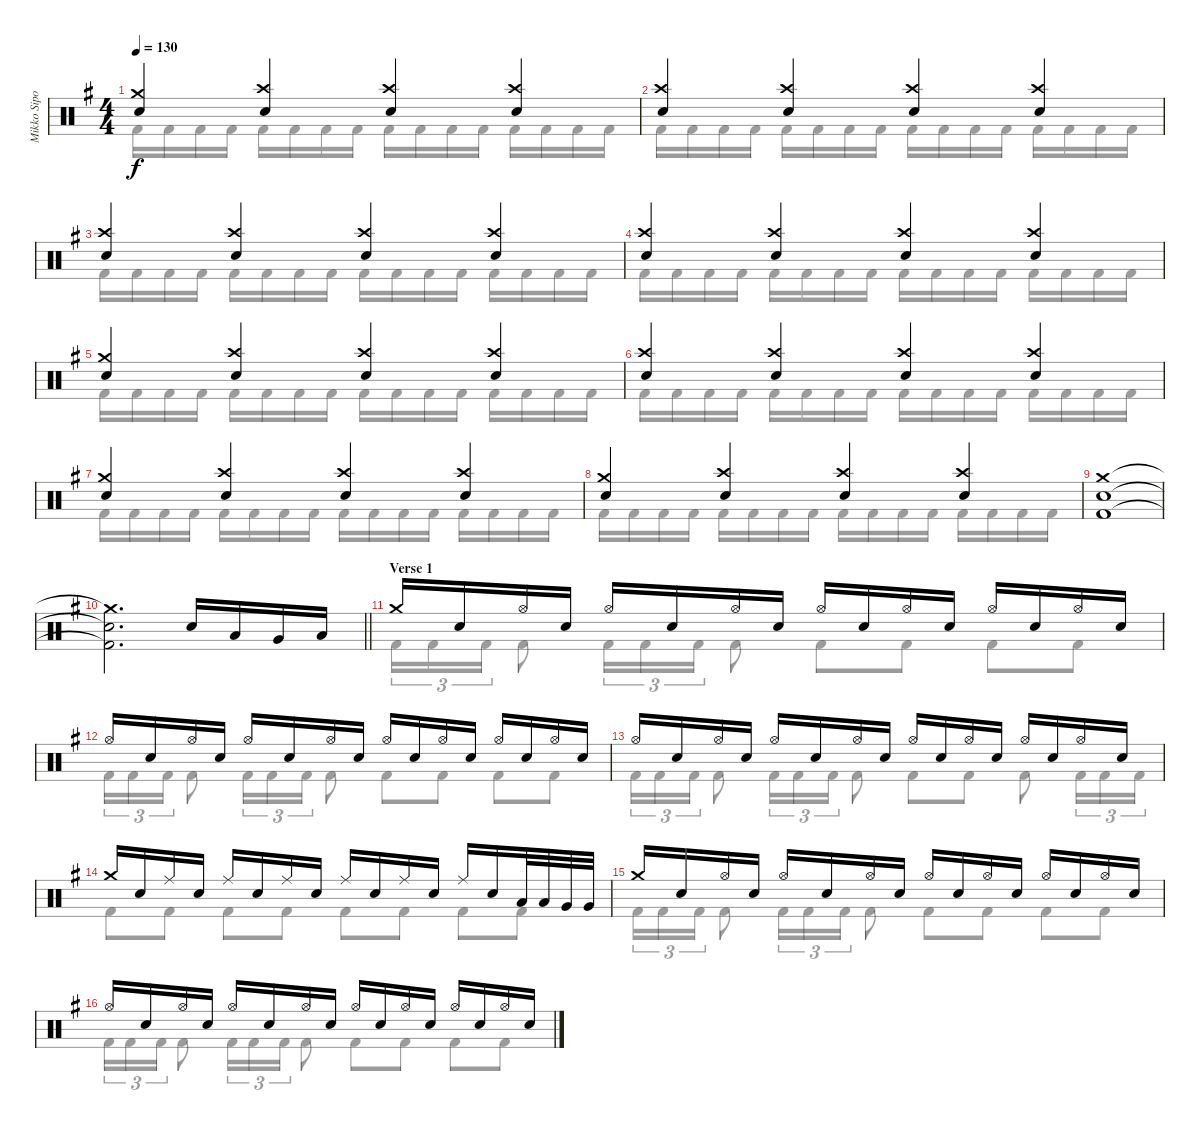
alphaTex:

\track ("Mikko Sipola (drums)" "Mikko Sipo") {instrument percussion}
\staff {score}
\articulation defaults
\voice
\ts (4 4)
\tempo 130
\clef neutral
\ks eminor
("Crash medium (hit)" "Electric Snare (hit)").4{dy f} ("Crash high (hit)" "Electric Snare (hit)").4 ("Crash high (hit)" "Electric Snare (hit)").4 ("Crash high (hit)" "Electric Snare (hit)").4 |
("Crash high (hit)" "Electric Snare (hit)").4 ("Crash high (hit)" "Electric Snare (hit)").4 ("Crash high (hit)" "Electric Snare (hit)").4 ("Crash high (hit)" "Electric Snare (hit)").4 |
("Crash high (hit)" "Electric Snare (hit)").4 ("Crash high (hit)" "Electric Snare (hit)").4 ("Crash high (hit)" "Electric Snare (hit)").4 ("Crash high (hit)" "Electric Snare (hit)").4 |
("Crash high (hit)" "Electric Snare (hit)").4 ("Crash high (hit)" "Electric Snare (hit)").4 ("Crash high (hit)" "Electric Snare (hit)").4 ("Crash high (hit)" "Electric Snare (hit)").4 |
("Crash medium (hit)" "Electric Snare (hit)").4 ("Crash high (hit)" "Electric Snare (hit)").4 ("Crash high (hit)" "Electric Snare (hit)").4 ("Crash high (hit)" "Electric Snare (hit)").4 |
("Crash high (hit)" "Electric Snare (hit)").4 ("Crash high (hit)" "Electric Snare (hit)").4 ("Crash high (hit)" "Electric Snare (hit)").4 ("Crash high (hit)" "Electric Snare (hit)").4 |
("Crash medium (hit)" "Electric Snare (hit)").4 ("Crash high (hit)" "Electric Snare (hit)").4 ("Crash high (hit)" "Electric Snare (hit)").4 ("Crash high (hit)" "Electric Snare (hit)").4 |
("Crash medium (hit)" "Electric Snare (hit)").4 ("Crash high (hit)" "Electric Snare (hit)").4 ("Crash high (hit)" "Electric Snare (hit)").4 ("Crash high (hit)" "Electric Snare (hit)").4 |
("Crash medium (hit)" "Electric Snare (hit)" "Kick (hit) 2").1 |
\barLineRight lightlight
("Crash medium (hit)"{t} "Electric Snare (hit)"{t} "Kick (hit) 2"{t}).2{d} "Electric Snare (hit)".16 "Low Tom (hit)".16 "Very Low Tom (hit)".16 "Low Floor Tom (hit)".16 |
\section ("" "Verse 1")
"Crash medium (hit)".16 "Electric Snare (hit)".16 "Hi-Hat (open)".16 "Electric Snare (hit)".16 "Hi-Hat (open)".16 "Electric Snare (hit)".16 "Hi-Hat (open)".16 "Electric Snare (hit)".16 "Hi-Hat (open)".16 "Electric Snare (hit)".16 "Hi-Hat (open)".16 "Electric Snare (hit)".16 "Hi-Hat (open)".16 "Electric Snare (hit)".16 "Hi-Hat (open)".16 "Electric Snare (hit)".16 |
"Hi-Hat (open)".16 "Electric Snare (hit)".16 "Hi-Hat (open)".16 "Electric Snare (hit)".16 "Hi-Hat (open)".16 "Electric Snare (hit)".16 "Hi-Hat (open)".16 "Electric Snare (hit)".16 "Hi-Hat (open)".16 "Electric Snare (hit)".16 "Hi-Hat (open)".16 "Electric Snare (hit)".16 "Hi-Hat (open)".16 "Electric Snare (hit)".16 "Hi-Hat (open)".16 "Electric Snare (hit)".16 |
"Hi-Hat (open)".16 "Electric Snare (hit)".16 "Hi-Hat (open)".16 "Electric Snare (hit)".16 "Hi-Hat (open)".16 "Electric Snare (hit)".16 "Hi-Hat (open)".16 "Electric Snare (hit)".16 "Hi-Hat (open)".16 "Electric Snare (hit)".16 "Hi-Hat (open)".16 "Electric Snare (hit)".16 "Hi-Hat (open)".16 "Electric Snare (hit)".16 "Hi-Hat (open)".16 "Electric Snare (hit)".16 |
"Crash medium (hit)".16 "Electric Snare (hit)".16 "Ride (middle)".16 "Electric Snare (hit)".16 "Ride (middle)".16 "Electric Snare (hit)".16 "Ride (middle)".16 "Electric Snare (hit)".16 "Ride (middle)".16 "Electric Snare (hit)".16 "Ride (middle)".16 "Electric Snare (hit)".16 "Ride (middle)".16 "Electric Snare (hit)".16 "Low Tom (hit)".32 "Low Tom (hit)".32 "Very Low Tom (hit)".32 "Very Low Tom (hit)".32 |
"Crash medium (hit)".16 "Electric Snare (hit)".16 "Hi-Hat (open)".16 "Electric Snare (hit)".16 "Hi-Hat (open)".16 "Electric Snare (hit)".16 "Hi-Hat (open)".16 "Electric Snare (hit)".16 "Hi-Hat (open)".16 "Electric Snare (hit)".16 "Hi-Hat (open)".16 "Electric Snare (hit)".16 "Hi-Hat (open)".16 "Electric Snare (hit)".16 "Hi-Hat (open)".16 "Electric Snare (hit)".16 |
"Hi-Hat (open)".16 "Electric Snare (hit)".16 "Hi-Hat (open)".16 "Electric Snare (hit)".16 "Hi-Hat (open)".16 "Electric Snare (hit)".16 "Hi-Hat (open)".16 "Electric Snare (hit)".16 "Hi-Hat (open)".16 "Electric Snare (hit)".16 "Hi-Hat (open)".16 "Electric Snare (hit)".16 "Hi-Hat (open)".16 "Electric Snare (hit)".16 "Hi-Hat (open)".16 "Electric Snare (hit)".16
\voice
\clef neutral
\ottava regular
\simile none
\ks eminor "Kick (hit) 2".16{dy f} "Kick (hit) 2".16 "Kick (hit) 2".16 "Kick (hit) 2".16 "Kick (hit) 2".16 "Kick (hit) 2".16 "Kick (hit) 2".16 "Kick (hit) 2".16 "Kick (hit) 2".16 "Kick (hit) 2".16 "Kick (hit) 2".16 "Kick (hit) 2".16 "Kick (hit) 2".16 "Kick (hit) 2".16 "Kick (hit) 2".16 "Kick (hit) 2".16
|
"Kick (hit) 2".16 "Kick (hit) 2".16 "Kick (hit) 2".16 "Kick (hit) 2".16 "Kick (hit) 2".16 "Kick (hit) 2".16 "Kick (hit) 2".16 "Kick (hit) 2".16 "Kick (hit) 2".16 "Kick (hit) 2".16 "Kick (hit) 2".16 "Kick (hit) 2".16 "Kick (hit) 2".16 "Kick (hit) 2".16 "Kick (hit) 2".16 "Kick (hit) 2".16 |
"Kick (hit) 2".16 "Kick (hit) 2".16 "Kick (hit) 2".16 "Kick (hit) 2".16 "Kick (hit) 2".16 "Kick (hit) 2".16 "Kick (hit) 2".16 "Kick (hit) 2".16 "Kick (hit) 2".16 "Kick (hit) 2".16 "Kick (hit) 2".16 "Kick (hit) 2".16 "Kick (hit) 2".16 "Kick (hit) 2".16 "Kick (hit) 2".16 "Kick (hit) 2".16 |
"Kick (hit) 2".16 "Kick (hit) 2".16 "Kick (hit) 2".16 "Kick (hit) 2".16 "Kick (hit) 2".16 "Kick (hit) 2".16 "Kick (hit) 2".16 "Kick (hit) 2".16 "Kick (hit) 2".16 "Kick (hit) 2".16 "Kick (hit) 2".16 "Kick (hit) 2".16 "Kick (hit) 2".16 "Kick (hit) 2".16 "Kick (hit) 2".16 "Kick (hit) 2".16 |
"Kick (hit) 2".16 "Kick (hit) 2".16 "Kick (hit) 2".16 "Kick (hit) 2".16 "Kick (hit) 2".16 "Kick (hit) 2".16 "Kick (hit) 2".16 "Kick (hit) 2".16 "Kick (hit) 2".16 "Kick (hit) 2".16 "Kick (hit) 2".16 "Kick (hit) 2".16 "Kick (hit) 2".16 "Kick (hit) 2".16 "Kick (hit) 2".16 "Kick (hit) 2".16 |
"Kick (hit) 2".16 "Kick (hit) 2".16 "Kick (hit) 2".16 "Kick (hit) 2".16 "Kick (hit) 2".16 "Kick (hit) 2".16 "Kick (hit) 2".16 "Kick (hit) 2".16 "Kick (hit) 2".16 "Kick (hit) 2".16 "Kick (hit) 2".16 "Kick (hit) 2".16 "Kick (hit) 2".16 "Kick (hit) 2".16 "Kick (hit) 2".16 "Kick (hit) 2".16 |
"Kick (hit) 2".16 "Kick (hit) 2".16 "Kick (hit) 2".16 "Kick (hit) 2".16 "Kick (hit) 2".16 "Kick (hit) 2".16 "Kick (hit) 2".16 "Kick (hit) 2".16 "Kick (hit) 2".16 "Kick (hit) 2".16 "Kick (hit) 2".16 "Kick (hit) 2".16 "Kick (hit) 2".16 "Kick (hit) 2".16 "Kick (hit) 2".16 "Kick (hit) 2".16 |
"Kick (hit) 2".16 "Kick (hit) 2".16 "Kick (hit) 2".16 "Kick (hit) 2".16 "Kick (hit) 2".16 "Kick (hit) 2".16 "Kick (hit) 2".16 "Kick (hit) 2".16 "Kick (hit) 2".16 "Kick (hit) 2".16 "Kick (hit) 2".16 "Kick (hit) 2".16 "Kick (hit) 2".16 "Kick (hit) 2".16 "Kick (hit) 2".16 "Kick (hit) 2".16 |
|
\barLineRight lightlight
|
"Kick (hit) 2".16{tu (3 2)} "Kick (hit) 2".16{tu (3 2)} "Kick (hit) 2".16{tu (3 2)} "Kick (hit) 2".8 "Kick (hit) 2".16{tu (3 2)} "Kick (hit) 2".16{tu (3 2)} "Kick (hit) 2".16{tu (3 2)} "Kick (hit) 2".8 "Kick (hit) 2".8 "Kick (hit) 2".8 "Kick (hit) 2".8 "Kick (hit) 2".8 |
"Kick (hit) 2".16{tu (3 2)} "Kick (hit) 2".16{tu (3 2)} "Kick (hit) 2".16{tu (3 2)} "Kick (hit) 2".8 "Kick (hit) 2".16{tu (3 2)} "Kick (hit) 2".16{tu (3 2)} "Kick (hit) 2".16{tu (3 2)} "Kick (hit) 2".8 "Kick (hit) 2".8 "Kick (hit) 2".8 "Kick (hit) 2".8 "Kick (hit) 2".8 |
"Kick (hit) 2".16{tu (3 2)} "Kick (hit) 2".16{tu (3 2)} "Kick (hit) 2".16{tu (3 2)} "Kick (hit) 2".8 "Kick (hit) 2".16{tu (3 2)} "Kick (hit) 2".16{tu (3 2)} "Kick (hit) 2".16{tu (3 2)} "Kick (hit) 2".8 "Kick (hit) 2".8 "Kick (hit) 2".8 "Kick (hit) 2".8 "Kick (hit) 2".16{tu (3 2)} "Kick (hit) 2".16{tu (3 2)} "Kick (hit) 2".16{tu (3 2)} |
"Kick (hit) 2".8 "Kick (hit) 2".8 "Kick (hit) 2".8 "Kick (hit) 2".8 "Kick (hit) 2".8 "Kick (hit) 2".8 "Kick (hit) 2".8 "Kick (hit) 2".8 |
"Kick (hit) 2".16{tu (3 2)} "Kick (hit) 2".16{tu (3 2)} "Kick (hit) 2".16{tu (3 2)} "Kick (hit) 2".8 "Kick (hit) 2".16{tu (3 2)} "Kick (hit) 2".16{tu (3 2)} "Kick (hit) 2".16{tu (3 2)} "Kick (hit) 2".8 "Kick (hit) 2".8 "Kick (hit) 2".8 "Kick (hit) 2".8 "Kick (hit) 2".8 |
"Kick (hit) 2".16{tu (3 2)} "Kick (hit) 2".16{tu (3 2)} "Kick (hit) 2".16{tu (3 2)} "Kick (hit) 2".8 "Kick (hit) 2".16{tu (3 2)} "Kick (hit) 2".16{tu (3 2)} "Kick (hit) 2".16{tu (3 2)} "Kick (hit) 2".8 "Kick (hit) 2".8 "Kick (hit) 2".8 "Kick (hit) 2".8 "Kick (hit) 2".8
